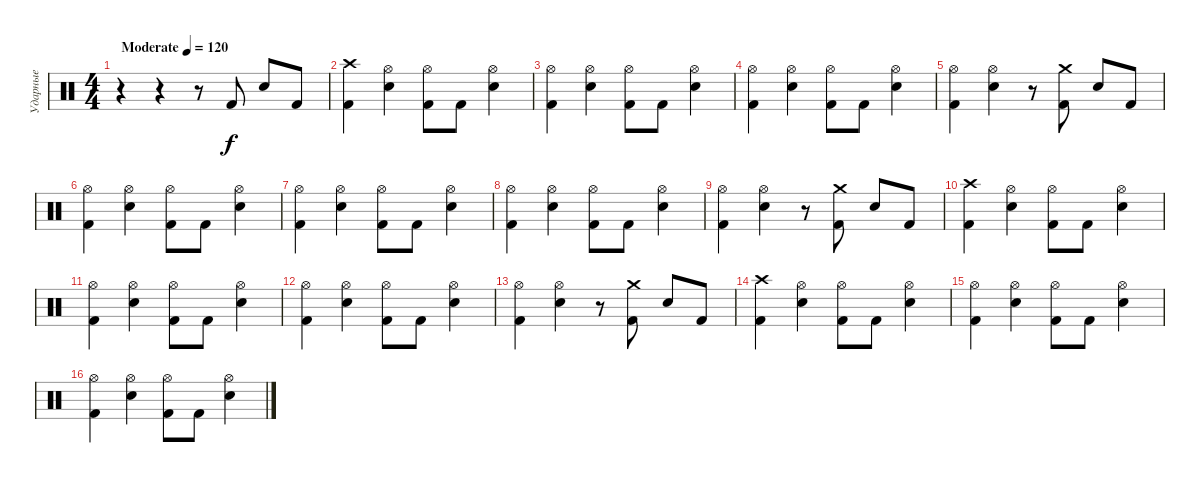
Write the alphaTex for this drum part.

\track ("Ударные" "Ударные") {instrument percussion}
\staff {score}
\articulation defaults
\ts (4 4)
\tempo (120 "Moderate")
\clef neutral
\ks c
r.4{dy f} r.4 r.8 "Kick (hit) 2".8 "Electric Snare (hit)".8 "Kick (hit) 2".8 |
("Crash high (hit)" "Kick (hit) 2").4 ("Hi-Hat (open)" "Electric Snare (hit)").4 ("Hi-Hat (open)" "Kick (hit) 2").8 "Kick (hit) 2".8 ("Hi-Hat (open)" "Electric Snare (hit)").4 |
("Hi-Hat (open)" "Kick (hit) 2").4 ("Hi-Hat (open)" "Electric Snare (hit)").4 ("Hi-Hat (open)" "Kick (hit) 2").8 "Kick (hit) 2".8 ("Hi-Hat (open)" "Electric Snare (hit)").4 |
("Hi-Hat (open)" "Kick (hit) 2").4 ("Hi-Hat (open)" "Electric Snare (hit)").4 ("Hi-Hat (open)" "Kick (hit) 2").8 "Kick (hit) 2".8 ("Hi-Hat (open)" "Electric Snare (hit)").4 |
("Hi-Hat (open)" "Kick (hit) 2").4 ("Hi-Hat (open)" "Electric Snare (hit)").4 r.8 ("Crash medium (hit)" "Kick (hit) 2").8 "Electric Snare (hit)".8 "Kick (hit) 2".8 |
("Hi-Hat (open)" "Kick (hit) 2").4 ("Hi-Hat (open)" "Electric Snare (hit)").4 ("Hi-Hat (open)" "Kick (hit) 2").8 "Kick (hit) 2".8 ("Hi-Hat (open)" "Electric Snare (hit)").4 |
("Hi-Hat (open)" "Kick (hit) 2").4 ("Hi-Hat (open)" "Electric Snare (hit)").4 ("Hi-Hat (open)" "Kick (hit) 2").8 "Kick (hit) 2".8 ("Hi-Hat (open)" "Electric Snare (hit)").4 |
("Hi-Hat (open)" "Kick (hit) 2").4 ("Hi-Hat (open)" "Electric Snare (hit)").4 ("Hi-Hat (open)" "Kick (hit) 2").8 "Kick (hit) 2".8 ("Hi-Hat (open)" "Electric Snare (hit)").4 |
("Hi-Hat (open)" "Kick (hit) 2").4 ("Hi-Hat (open)" "Electric Snare (hit)").4 r.8 ("Crash medium (hit)" "Kick (hit) 2").8 "Electric Snare (hit)".8 "Kick (hit) 2".8 |
("Crash high (hit)" "Kick (hit) 2").4 ("Hi-Hat (open)" "Electric Snare (hit)").4 ("Hi-Hat (open)" "Kick (hit) 2").8 "Kick (hit) 2".8 ("Hi-Hat (open)" "Electric Snare (hit)").4 |
("Hi-Hat (open)" "Kick (hit) 2").4 ("Hi-Hat (open)" "Electric Snare (hit)").4 ("Hi-Hat (open)" "Kick (hit) 2").8 "Kick (hit) 2".8 ("Hi-Hat (open)" "Electric Snare (hit)").4 |
("Hi-Hat (open)" "Kick (hit) 2").4 ("Hi-Hat (open)" "Electric Snare (hit)").4 ("Hi-Hat (open)" "Kick (hit) 2").8 "Kick (hit) 2".8 ("Hi-Hat (open)" "Electric Snare (hit)").4 |
("Hi-Hat (open)" "Kick (hit) 2").4 ("Hi-Hat (open)" "Electric Snare (hit)").4 r.8 ("Crash medium (hit)" "Kick (hit) 2").8 "Electric Snare (hit)".8 "Kick (hit) 2".8 |
("Crash high (hit)" "Kick (hit) 2").4 ("Hi-Hat (open)" "Electric Snare (hit)").4 ("Hi-Hat (open)" "Kick (hit) 2").8 "Kick (hit) 2".8 ("Hi-Hat (open)" "Electric Snare (hit)").4 |
("Hi-Hat (open)" "Kick (hit) 2").4 ("Hi-Hat (open)" "Electric Snare (hit)").4 ("Hi-Hat (open)" "Kick (hit) 2").8 "Kick (hit) 2".8 ("Hi-Hat (open)" "Electric Snare (hit)").4 |
("Hi-Hat (open)" "Kick (hit) 2").4 ("Hi-Hat (open)" "Electric Snare (hit)").4 ("Hi-Hat (open)" "Kick (hit) 2").8 "Kick (hit) 2".8 ("Hi-Hat (open)" "Electric Snare (hit)").4
